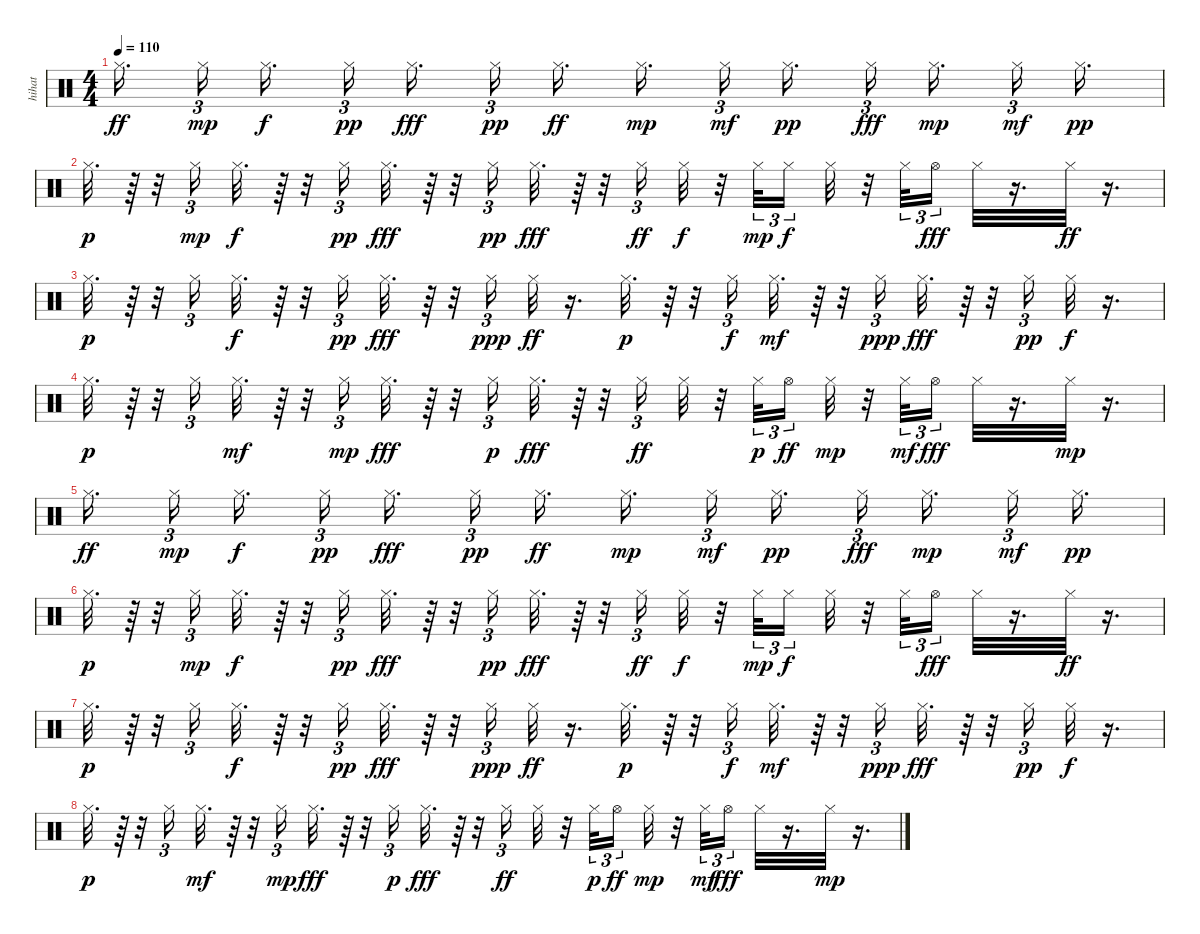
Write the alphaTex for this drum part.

\track ("hihat   " "hihat   ") {instrument percussion}
\staff {score}
\articulation defaults
\ts (4 4)
\tempo 110
\clef neutral
\ks c "Hi-Hat (closed)".16{d dy ff beam splitsecondary} "Hi-Hat (closed)".16{tu (3 2) dy mp beam splitsecondary} "Hi-Hat (closed)".16{d dy f} "Hi-Hat (closed)".16{tu (3 2) dy pp} "Hi-Hat (closed)".16{d dy fff beam splitsecondary} "Hi-Hat (closed)".16{tu (3 2) dy pp} "Hi-Hat (closed)".16{d dy ff} "Hi-Hat (closed)".16{d dy mp beam splitsecondary} "Hi-Hat (closed)".16{tu (3 2) dy mf beam splitsecondary} "Hi-Hat (closed)".16{d dy pp} "Hi-Hat (closed)".16{tu (3 2) dy fff} "Hi-Hat (closed)".16{d dy mp beam splitsecondary} "Hi-Hat (closed)".16{tu (3 2) dy mf} "Hi-Hat (closed)".16{d dy pp}
|
"Hi-Hat (closed)".32{d dy p} r.64 r.32 "Hi-Hat (closed)".16{tu (3 2) dy mp} "Hi-Hat (closed)".32{d dy f} r.64 r.32 "Hi-Hat (closed)".16{tu (3 2) dy pp} "Hi-Hat (closed)".32{d dy fff} r.64 r.32 "Hi-Hat (closed)".16{tu (3 2) dy pp} "Hi-Hat (closed)".32{d dy fff} r.64 r.32 "Hi-Hat (closed)".16{tu (3 2) dy ff} "Hi-Hat (closed)".32{dy f} r.32 "Hi-Hat (closed)".32{tu (3 2) dy mp} "Hi-Hat (closed)".16{tu (3 2) dy f beam splitsecondary} "Hi-Hat (closed)".32 r.32 "Hi-Hat (closed)".32{tu (3 2)} "Hi-Hat (open)".16{tu (3 2) dy fff} "Hi-Hat (closed)".32 r.16{d} "Hi-Hat (closed)".32{dy ff} r.16{d} |
"Hi-Hat (closed)".32{d dy p} r.64 r.32 "Hi-Hat (closed)".16{tu (3 2)} "Hi-Hat (closed)".32{d dy f} r.64 r.32 "Hi-Hat (closed)".16{tu (3 2) dy pp} "Hi-Hat (closed)".32{d dy fff} r.64 r.32 "Hi-Hat (closed)".16{tu (3 2) dy ppp} "Hi-Hat (closed)".32{dy ff} r.16{d} "Hi-Hat (closed)".32{d dy p} r.64 r.32 "Hi-Hat (closed)".16{tu (3 2) dy f} "Hi-Hat (closed)".32{d dy mf} r.64 r.32 "Hi-Hat (closed)".16{tu (3 2) dy ppp} "Hi-Hat (closed)".32{d dy fff} r.64 r.32 "Hi-Hat (closed)".16{tu (3 2) dy pp} "Hi-Hat (closed)".32{dy f} r.16{d} |
"Hi-Hat (closed)".32{d dy p} r.64 r.32 "Hi-Hat (closed)".16{tu (3 2)} "Hi-Hat (closed)".32{d dy mf} r.64 r.32 "Hi-Hat (closed)".16{tu (3 2) dy mp} "Hi-Hat (closed)".32{d dy fff} r.64 r.32 "Hi-Hat (closed)".16{tu (3 2) dy p} "Hi-Hat (closed)".32{d dy fff} r.64 r.32 "Hi-Hat (closed)".16{tu (3 2) dy ff} "Hi-Hat (closed)".32 r.32 "Hi-Hat (closed)".32{tu (3 2) dy p} "Hi-Hat (open)".16{tu (3 2) dy ff beam splitsecondary} "Hi-Hat (closed)".32{dy mp} r.32 "Hi-Hat (closed)".32{tu (3 2) dy mf} "Hi-Hat (open)".16{tu (3 2) dy fff} "Hi-Hat (closed)".32 r.16{d} "Hi-Hat (closed)".32{dy mp} r.16{d} |
"Hi-Hat (closed)".16{d dy ff beam splitsecondary} "Hi-Hat (closed)".16{tu (3 2) dy mp beam splitsecondary} "Hi-Hat (closed)".16{d dy f} "Hi-Hat (closed)".16{tu (3 2) dy pp} "Hi-Hat (closed)".16{d dy fff beam splitsecondary} "Hi-Hat (closed)".16{tu (3 2) dy pp} "Hi-Hat (closed)".16{d dy ff} "Hi-Hat (closed)".16{d dy mp beam splitsecondary} "Hi-Hat (closed)".16{tu (3 2) dy mf beam splitsecondary} "Hi-Hat (closed)".16{d dy pp} "Hi-Hat (closed)".16{tu (3 2) dy fff} "Hi-Hat (closed)".16{d dy mp beam splitsecondary} "Hi-Hat (closed)".16{tu (3 2) dy mf} "Hi-Hat (closed)".16{d dy pp} |
"Hi-Hat (closed)".32{d dy p} r.64 r.32 "Hi-Hat (closed)".16{tu (3 2) dy mp} "Hi-Hat (closed)".32{d dy f} r.64 r.32 "Hi-Hat (closed)".16{tu (3 2) dy pp} "Hi-Hat (closed)".32{d dy fff} r.64 r.32 "Hi-Hat (closed)".16{tu (3 2) dy pp} "Hi-Hat (closed)".32{d dy fff} r.64 r.32 "Hi-Hat (closed)".16{tu (3 2) dy ff} "Hi-Hat (closed)".32{dy f} r.32 "Hi-Hat (closed)".32{tu (3 2) dy mp} "Hi-Hat (closed)".16{tu (3 2) dy f beam splitsecondary} "Hi-Hat (closed)".32 r.32 "Hi-Hat (closed)".32{tu (3 2)} "Hi-Hat (open)".16{tu (3 2) dy fff} "Hi-Hat (closed)".32 r.16{d} "Hi-Hat (closed)".32{dy ff} r.16{d} |
"Hi-Hat (closed)".32{d dy p} r.64 r.32 "Hi-Hat (closed)".16{tu (3 2)} "Hi-Hat (closed)".32{d dy f} r.64 r.32 "Hi-Hat (closed)".16{tu (3 2) dy pp} "Hi-Hat (closed)".32{d dy fff} r.64 r.32 "Hi-Hat (closed)".16{tu (3 2) dy ppp} "Hi-Hat (closed)".32{dy ff} r.16{d} "Hi-Hat (closed)".32{d dy p} r.64 r.32 "Hi-Hat (closed)".16{tu (3 2) dy f} "Hi-Hat (closed)".32{d dy mf} r.64 r.32 "Hi-Hat (closed)".16{tu (3 2) dy ppp} "Hi-Hat (closed)".32{d dy fff} r.64 r.32 "Hi-Hat (closed)".16{tu (3 2) dy pp} "Hi-Hat (closed)".32{dy f} r.16{d} |
"Hi-Hat (closed)".32{d dy p} r.64 r.32 "Hi-Hat (closed)".16{tu (3 2)} "Hi-Hat (closed)".32{d dy mf} r.64 r.32 "Hi-Hat (closed)".16{tu (3 2) dy mp} "Hi-Hat (closed)".32{d dy fff} r.64 r.32 "Hi-Hat (closed)".16{tu (3 2) dy p} "Hi-Hat (closed)".32{d dy fff} r.64 r.32 "Hi-Hat (closed)".16{tu (3 2) dy ff} "Hi-Hat (closed)".32 r.32 "Hi-Hat (closed)".32{tu (3 2) dy p} "Hi-Hat (open)".16{tu (3 2) dy ff beam splitsecondary} "Hi-Hat (closed)".32{dy mp} r.32 "Hi-Hat (closed)".32{tu (3 2) dy mf} "Hi-Hat (open)".16{tu (3 2) dy fff} "Hi-Hat (closed)".32 r.16{d} "Hi-Hat (closed)".32{dy mp} r.16{d}
